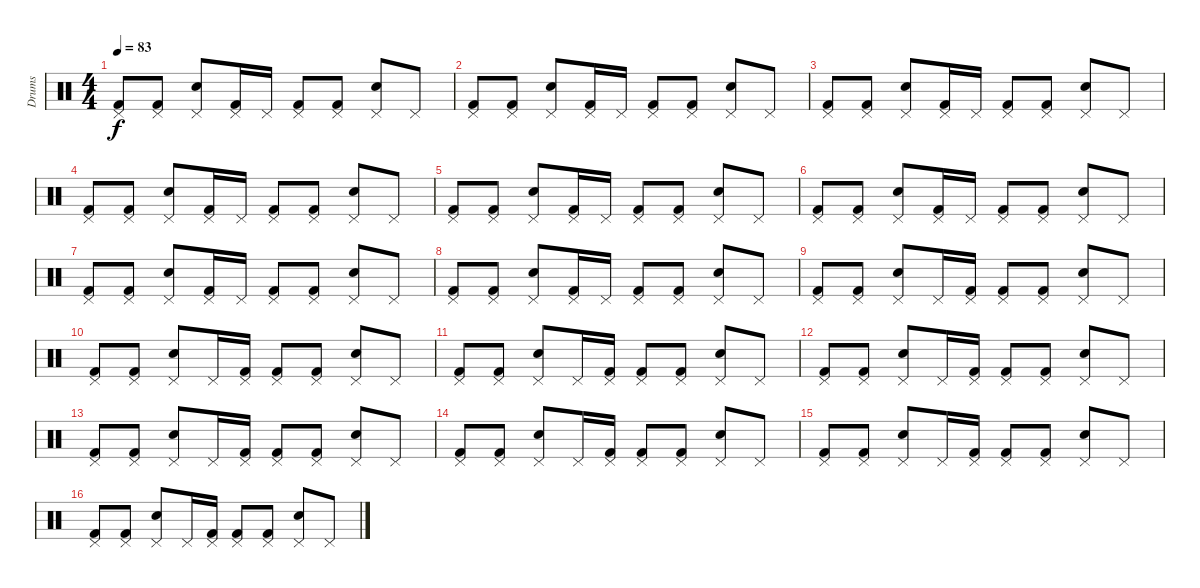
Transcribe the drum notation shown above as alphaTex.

\track ("Drums" "Drums") {instrument percussion}
\staff {score}
\articulation defaults
\ts (4 4)
\tempo 83
\clef neutral
\ks c
("Kick (hit) 2" "Pedal Hi-Hat (hit)").8{dy f} ("Kick (hit) 2" "Pedal Hi-Hat (hit)").8 ("Snare (hit) 2" "Pedal Hi-Hat (hit)").8 ("Kick (hit) 2" "Pedal Hi-Hat (hit)").16 "Pedal Hi-Hat (hit)".16 ("Kick (hit) 2" "Pedal Hi-Hat (hit)").8 ("Kick (hit) 2" "Pedal Hi-Hat (hit)").8 ("Snare (hit) 2" "Pedal Hi-Hat (hit)").8 "Pedal Hi-Hat (hit)".8 |
("Kick (hit) 2" "Pedal Hi-Hat (hit)").8 ("Kick (hit) 2" "Pedal Hi-Hat (hit)").8 ("Snare (hit) 2" "Pedal Hi-Hat (hit)").8 ("Kick (hit) 2" "Pedal Hi-Hat (hit)").16 "Pedal Hi-Hat (hit)".16 ("Kick (hit) 2" "Pedal Hi-Hat (hit)").8 ("Kick (hit) 2" "Pedal Hi-Hat (hit)").8 ("Snare (hit) 2" "Pedal Hi-Hat (hit)").8 "Pedal Hi-Hat (hit)".8 |
("Kick (hit) 2" "Pedal Hi-Hat (hit)").8 ("Kick (hit) 2" "Pedal Hi-Hat (hit)").8 ("Snare (hit) 2" "Pedal Hi-Hat (hit)").8 ("Kick (hit) 2" "Pedal Hi-Hat (hit)").16 "Pedal Hi-Hat (hit)".16 ("Kick (hit) 2" "Pedal Hi-Hat (hit)").8 ("Kick (hit) 2" "Pedal Hi-Hat (hit)").8 ("Snare (hit) 2" "Pedal Hi-Hat (hit)").8 "Pedal Hi-Hat (hit)".8 |
("Kick (hit) 2" "Pedal Hi-Hat (hit)").8 ("Kick (hit) 2" "Pedal Hi-Hat (hit)").8 ("Snare (hit) 2" "Pedal Hi-Hat (hit)").8 ("Kick (hit) 2" "Pedal Hi-Hat (hit)").16 "Pedal Hi-Hat (hit)".16 ("Kick (hit) 2" "Pedal Hi-Hat (hit)").8 ("Kick (hit) 2" "Pedal Hi-Hat (hit)").8 ("Snare (hit) 2" "Pedal Hi-Hat (hit)").8 "Pedal Hi-Hat (hit)".8 |
("Kick (hit) 2" "Pedal Hi-Hat (hit)").8 ("Kick (hit) 2" "Pedal Hi-Hat (hit)").8 ("Snare (hit) 2" "Pedal Hi-Hat (hit)").8 ("Kick (hit) 2" "Pedal Hi-Hat (hit)").16 "Pedal Hi-Hat (hit)".16 ("Kick (hit) 2" "Pedal Hi-Hat (hit)").8 ("Kick (hit) 2" "Pedal Hi-Hat (hit)").8 ("Snare (hit) 2" "Pedal Hi-Hat (hit)").8 "Pedal Hi-Hat (hit)".8 |
("Kick (hit) 2" "Pedal Hi-Hat (hit)").8 ("Kick (hit) 2" "Pedal Hi-Hat (hit)").8 ("Snare (hit) 2" "Pedal Hi-Hat (hit)").8 ("Kick (hit) 2" "Pedal Hi-Hat (hit)").16 "Pedal Hi-Hat (hit)".16 ("Kick (hit) 2" "Pedal Hi-Hat (hit)").8 ("Kick (hit) 2" "Pedal Hi-Hat (hit)").8 ("Snare (hit) 2" "Pedal Hi-Hat (hit)").8 "Pedal Hi-Hat (hit)".8 |
("Kick (hit) 2" "Pedal Hi-Hat (hit)").8 ("Kick (hit) 2" "Pedal Hi-Hat (hit)").8 ("Snare (hit) 2" "Pedal Hi-Hat (hit)").8 ("Kick (hit) 2" "Pedal Hi-Hat (hit)").16 "Pedal Hi-Hat (hit)".16 ("Kick (hit) 2" "Pedal Hi-Hat (hit)").8 ("Kick (hit) 2" "Pedal Hi-Hat (hit)").8 ("Snare (hit) 2" "Pedal Hi-Hat (hit)").8 "Pedal Hi-Hat (hit)".8 |
("Kick (hit) 2" "Pedal Hi-Hat (hit)").8 ("Kick (hit) 2" "Pedal Hi-Hat (hit)").8 ("Snare (hit) 2" "Pedal Hi-Hat (hit)").8 ("Kick (hit) 2" "Pedal Hi-Hat (hit)").16 "Pedal Hi-Hat (hit)".16 ("Kick (hit) 2" "Pedal Hi-Hat (hit)").8 ("Kick (hit) 2" "Pedal Hi-Hat (hit)").8 ("Snare (hit) 2" "Pedal Hi-Hat (hit)").8 "Pedal Hi-Hat (hit)".8 |
("Kick (hit) 2" "Pedal Hi-Hat (hit)").8 ("Kick (hit) 2" "Pedal Hi-Hat (hit)").8 ("Snare (hit) 2" "Pedal Hi-Hat (hit)").8 "Pedal Hi-Hat (hit)".16 ("Kick (hit) 2" "Pedal Hi-Hat (hit)").16 ("Kick (hit) 2" "Pedal Hi-Hat (hit)").8 ("Kick (hit) 2" "Pedal Hi-Hat (hit)").8 ("Snare (hit) 2" "Pedal Hi-Hat (hit)").8 "Pedal Hi-Hat (hit)".8 |
("Kick (hit) 2" "Pedal Hi-Hat (hit)").8 ("Kick (hit) 2" "Pedal Hi-Hat (hit)").8 ("Snare (hit) 2" "Pedal Hi-Hat (hit)").8 "Pedal Hi-Hat (hit)".16 ("Kick (hit) 2" "Pedal Hi-Hat (hit)").16 ("Kick (hit) 2" "Pedal Hi-Hat (hit)").8 ("Kick (hit) 2" "Pedal Hi-Hat (hit)").8 ("Snare (hit) 2" "Pedal Hi-Hat (hit)").8 "Pedal Hi-Hat (hit)".8 |
("Kick (hit) 2" "Pedal Hi-Hat (hit)").8 ("Kick (hit) 2" "Pedal Hi-Hat (hit)").8 ("Snare (hit) 2" "Pedal Hi-Hat (hit)").8 "Pedal Hi-Hat (hit)".16 ("Kick (hit) 2" "Pedal Hi-Hat (hit)").16 ("Kick (hit) 2" "Pedal Hi-Hat (hit)").8 ("Kick (hit) 2" "Pedal Hi-Hat (hit)").8 ("Snare (hit) 2" "Pedal Hi-Hat (hit)").8 "Pedal Hi-Hat (hit)".8 |
("Kick (hit) 2" "Pedal Hi-Hat (hit)").8 ("Kick (hit) 2" "Pedal Hi-Hat (hit)").8 ("Snare (hit) 2" "Pedal Hi-Hat (hit)").8 "Pedal Hi-Hat (hit)".16 ("Kick (hit) 2" "Pedal Hi-Hat (hit)").16 ("Kick (hit) 2" "Pedal Hi-Hat (hit)").8 ("Kick (hit) 2" "Pedal Hi-Hat (hit)").8 ("Snare (hit) 2" "Pedal Hi-Hat (hit)").8 "Pedal Hi-Hat (hit)".8 |
("Kick (hit) 2" "Pedal Hi-Hat (hit)").8 ("Kick (hit) 2" "Pedal Hi-Hat (hit)").8 ("Snare (hit) 2" "Pedal Hi-Hat (hit)").8 "Pedal Hi-Hat (hit)".16 ("Kick (hit) 2" "Pedal Hi-Hat (hit)").16 ("Kick (hit) 2" "Pedal Hi-Hat (hit)").8 ("Kick (hit) 2" "Pedal Hi-Hat (hit)").8 ("Snare (hit) 2" "Pedal Hi-Hat (hit)").8 "Pedal Hi-Hat (hit)".8 |
("Kick (hit) 2" "Pedal Hi-Hat (hit)").8 ("Kick (hit) 2" "Pedal Hi-Hat (hit)").8 ("Snare (hit) 2" "Pedal Hi-Hat (hit)").8 "Pedal Hi-Hat (hit)".16 ("Kick (hit) 2" "Pedal Hi-Hat (hit)").16 ("Kick (hit) 2" "Pedal Hi-Hat (hit)").8 ("Kick (hit) 2" "Pedal Hi-Hat (hit)").8 ("Snare (hit) 2" "Pedal Hi-Hat (hit)").8 "Pedal Hi-Hat (hit)".8 |
("Kick (hit) 2" "Pedal Hi-Hat (hit)").8 ("Kick (hit) 2" "Pedal Hi-Hat (hit)").8 ("Snare (hit) 2" "Pedal Hi-Hat (hit)").8 "Pedal Hi-Hat (hit)".16 ("Kick (hit) 2" "Pedal Hi-Hat (hit)").16 ("Kick (hit) 2" "Pedal Hi-Hat (hit)").8 ("Kick (hit) 2" "Pedal Hi-Hat (hit)").8 ("Snare (hit) 2" "Pedal Hi-Hat (hit)").8 "Pedal Hi-Hat (hit)".8 |
("Kick (hit) 2" "Pedal Hi-Hat (hit)").8 ("Kick (hit) 2" "Pedal Hi-Hat (hit)").8 ("Snare (hit) 2" "Pedal Hi-Hat (hit)").8 "Pedal Hi-Hat (hit)".16 ("Kick (hit) 2" "Pedal Hi-Hat (hit)").16 ("Kick (hit) 2" "Pedal Hi-Hat (hit)").8 ("Kick (hit) 2" "Pedal Hi-Hat (hit)").8 ("Snare (hit) 2" "Pedal Hi-Hat (hit)").8 "Pedal Hi-Hat (hit)".8
